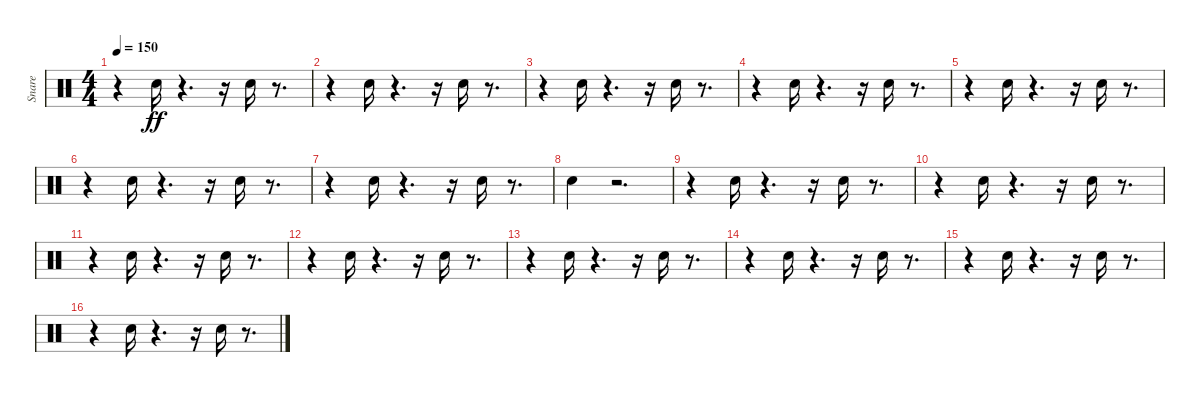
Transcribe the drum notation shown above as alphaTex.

\track ("Snare" "Snare") {instrument percussion}
\staff {score}
\articulation defaults
\ts (4 4)
\tempo 150
\clef neutral
\ks c
r.4{dy ff} "Electric Snare (hit)".16 r.4{d} r.16 "Electric Snare (hit)".16 r.8{d} |
r.4 "Electric Snare (hit)".16 r.4{d} r.16 "Electric Snare (hit)".16 r.8{d} |
r.4 "Electric Snare (hit)".16 r.4{d} r.16 "Electric Snare (hit)".16 r.8{d} |
r.4 "Electric Snare (hit)".16 r.4{d} r.16 "Electric Snare (hit)".16 r.8{d} |
r.4 "Electric Snare (hit)".16 r.4{d} r.16 "Electric Snare (hit)".16 r.8{d} |
r.4 "Electric Snare (hit)".16 r.4{d} r.16 "Electric Snare (hit)".16 r.8{d} |
r.4 "Electric Snare (hit)".16 r.4{d} r.16 "Electric Snare (hit)".16 r.8{d} |
"Electric Snare (hit)".4 r.2{d} |
r.4 "Electric Snare (hit)".16 r.4{d} r.16 "Electric Snare (hit)".16 r.8{d} |
r.4 "Electric Snare (hit)".16 r.4{d} r.16 "Electric Snare (hit)".16 r.8{d} |
r.4 "Electric Snare (hit)".16 r.4{d} r.16 "Electric Snare (hit)".16 r.8{d} |
r.4 "Electric Snare (hit)".16 r.4{d} r.16 "Electric Snare (hit)".16 r.8{d} |
r.4 "Electric Snare (hit)".16 r.4{d} r.16 "Electric Snare (hit)".16 r.8{d} |
r.4 "Electric Snare (hit)".16 r.4{d} r.16 "Electric Snare (hit)".16 r.8{d} |
r.4 "Electric Snare (hit)".16 r.4{d} r.16 "Electric Snare (hit)".16 r.8{d} |
r.4 "Electric Snare (hit)".16 r.4{d} r.16 "Electric Snare (hit)".16 r.8{d}
